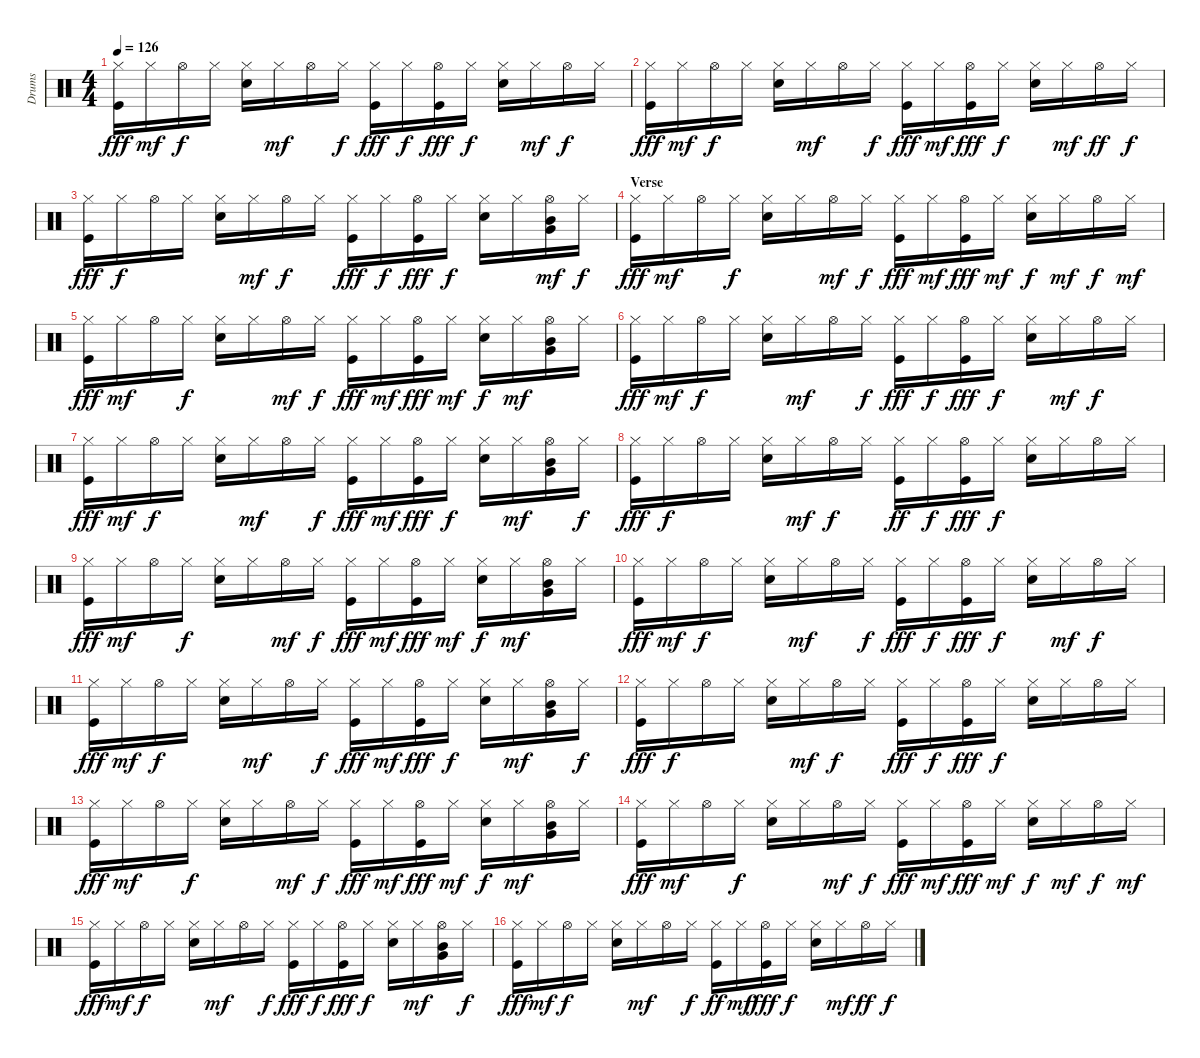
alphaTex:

\track ("Drums" "Drums") {instrument percussion}
\staff {score}
\articulation defaults
\ts (4 4)
\tempo 126
\clef neutral
\ks c
("Kick (hit)" "Hi-Hat (closed)").16{dy fff} "Hi-Hat (closed)".16{dy mf} "Hi-Hat (open)".16{dy f} "Hi-Hat (closed)".16 ("Electric Snare (hit)" "Hi-Hat (closed)").16 "Hi-Hat (closed)".16{dy mf} "Hi-Hat (open)".16 "Hi-Hat (closed)".16{dy f} ("Kick (hit)" "Hi-Hat (closed)").16{dy fff} "Hi-Hat (closed)".16{dy f} ("Kick (hit)" "Hi-Hat (open)").16{dy fff} "Hi-Hat (closed)".16{dy f} ("Electric Snare (hit)" "Hi-Hat (closed)").16 "Hi-Hat (closed)".16{dy mf} "Hi-Hat (open)".16{dy f} "Hi-Hat (closed)".16 |
("Kick (hit)" "Hi-Hat (closed)").16{dy fff} "Hi-Hat (closed)".16{dy mf} "Hi-Hat (open)".16{dy f} "Hi-Hat (closed)".16 ("Electric Snare (hit)" "Hi-Hat (closed)").16 "Hi-Hat (closed)".16{dy mf} "Hi-Hat (open)".16 "Hi-Hat (closed)".16{dy f} ("Kick (hit)" "Hi-Hat (closed)").16{dy fff} "Hi-Hat (closed)".16{dy mf} ("Kick (hit)" "Hi-Hat (open)").16{dy fff} "Hi-Hat (closed)".16{dy f} ("Electric Snare (hit)" "Hi-Hat (closed)").16 "Hi-Hat (closed)".16{dy mf} "Hi-Hat (open)".16{dy ff} "Hi-Hat (closed)".16{dy f} |
("Kick (hit)" "Hi-Hat (closed)").16{dy fff} "Hi-Hat (closed)".16{dy f} "Hi-Hat (open)".16 "Hi-Hat (closed)".16 ("Electric Snare (hit)" "Hi-Hat (closed)").16 "Hi-Hat (closed)".16{dy mf} "Hi-Hat (open)".16{dy f} "Hi-Hat (closed)".16 ("Kick (hit)" "Hi-Hat (closed)").16{dy fff} "Hi-Hat (closed)".16{dy f} ("Kick (hit)" "Hi-Hat (open)").16{dy fff} "Hi-Hat (closed)".16{dy f} ("Electric Snare (hit)" "Hi-Hat (closed)").16 "Hi-Hat (closed)".16 ("Very Low Tom (hit)" "Hi-Hat (open)" "Mid Tom (hit)").16{dy mf} "Hi-Hat (closed)".16{dy f} |
\section ("" "Verse")
("Kick (hit)" "Hi-Hat (closed)").16{dy fff} "Hi-Hat (closed)".16{dy mf} "Hi-Hat (open)".16 "Hi-Hat (closed)".16{dy f} ("Electric Snare (hit)" "Hi-Hat (closed)").16 "Hi-Hat (closed)".16 "Hi-Hat (open)".16{dy mf} "Hi-Hat (closed)".16{dy f} ("Kick (hit)" "Hi-Hat (closed)").16{dy fff} "Hi-Hat (closed)".16{dy mf} ("Kick (hit)" "Hi-Hat (open)").16{dy fff} "Hi-Hat (closed)".16{dy mf} ("Electric Snare (hit)" "Hi-Hat (closed)").16{dy f} "Hi-Hat (closed)".16{dy mf} "Hi-Hat (open)".16{dy f} "Hi-Hat (closed)".16{dy mf} |
("Kick (hit)" "Hi-Hat (closed)").16{dy fff} "Hi-Hat (closed)".16{dy mf} "Hi-Hat (open)".16 "Hi-Hat (closed)".16{dy f} ("Electric Snare (hit)" "Hi-Hat (closed)").16 "Hi-Hat (closed)".16 "Hi-Hat (open)".16{dy mf} "Hi-Hat (closed)".16{dy f} ("Kick (hit)" "Hi-Hat (closed)").16{dy fff} "Hi-Hat (closed)".16{dy mf} ("Kick (hit)" "Hi-Hat (open)").16{dy fff} "Hi-Hat (closed)".16{dy mf} ("Electric Snare (hit)" "Hi-Hat (closed)").16{dy f} "Hi-Hat (closed)".16{dy mf} ("Very Low Tom (hit)" "Hi-Hat (open)" "Mid Tom (hit)").16 "Hi-Hat (closed)".16 |
("Kick (hit)" "Hi-Hat (closed)").16{dy fff} "Hi-Hat (closed)".16{dy mf} "Hi-Hat (open)".16{dy f} "Hi-Hat (closed)".16 ("Electric Snare (hit)" "Hi-Hat (closed)").16 "Hi-Hat (closed)".16{dy mf} "Hi-Hat (open)".16 "Hi-Hat (closed)".16{dy f} ("Kick (hit)" "Hi-Hat (closed)").16{dy fff} "Hi-Hat (closed)".16{dy f} ("Kick (hit)" "Hi-Hat (open)").16{dy fff} "Hi-Hat (closed)".16{dy f} ("Electric Snare (hit)" "Hi-Hat (closed)").16 "Hi-Hat (closed)".16{dy mf} "Hi-Hat (open)".16{dy f} "Hi-Hat (closed)".16 |
("Kick (hit)" "Hi-Hat (closed)").16{dy fff} "Hi-Hat (closed)".16{dy mf} "Hi-Hat (open)".16{dy f} "Hi-Hat (closed)".16 ("Electric Snare (hit)" "Hi-Hat (closed)").16 "Hi-Hat (closed)".16{dy mf} "Hi-Hat (open)".16 "Hi-Hat (closed)".16{dy f} ("Kick (hit)" "Hi-Hat (closed)").16{dy fff} "Hi-Hat (closed)".16{dy mf} ("Kick (hit)" "Hi-Hat (open)").16{dy fff} "Hi-Hat (closed)".16{dy f} ("Electric Snare (hit)" "Hi-Hat (closed)").16 "Hi-Hat (closed)".16{dy mf} ("Very Low Tom (hit)" "Hi-Hat (open)" "Mid Tom (hit)").16 "Hi-Hat (closed)".16{dy f} |
("Kick (hit)" "Hi-Hat (closed)").16{dy fff} "Hi-Hat (closed)".16{dy f} "Hi-Hat (open)".16 "Hi-Hat (closed)".16 ("Electric Snare (hit)" "Hi-Hat (closed)").16 "Hi-Hat (closed)".16{dy mf} "Hi-Hat (open)".16{dy f} "Hi-Hat (closed)".16 ("Kick (hit)" "Hi-Hat (closed)").16{dy ff} "Hi-Hat (closed)".16{dy f} ("Kick (hit)" "Hi-Hat (open)").16{dy fff} "Hi-Hat (closed)".16{dy f} ("Electric Snare (hit)" "Hi-Hat (closed)").16 "Hi-Hat (closed)".16 "Hi-Hat (open)".16 "Hi-Hat (closed)".16 |
("Kick (hit)" "Hi-Hat (closed)").16{dy fff} "Hi-Hat (closed)".16{dy mf} "Hi-Hat (open)".16 "Hi-Hat (closed)".16{dy f} ("Electric Snare (hit)" "Hi-Hat (closed)").16 "Hi-Hat (closed)".16 "Hi-Hat (open)".16{dy mf} "Hi-Hat (closed)".16{dy f} ("Kick (hit)" "Hi-Hat (closed)").16{dy fff} "Hi-Hat (closed)".16{dy mf} ("Kick (hit)" "Hi-Hat (open)").16{dy fff} "Hi-Hat (closed)".16{dy mf} ("Electric Snare (hit)" "Hi-Hat (closed)").16{dy f} "Hi-Hat (closed)".16{dy mf} ("Very Low Tom (hit)" "Hi-Hat (open)" "Mid Tom (hit)").16 "Hi-Hat (closed)".16 |
("Kick (hit)" "Hi-Hat (closed)").16{dy fff} "Hi-Hat (closed)".16{dy mf} "Hi-Hat (open)".16{dy f} "Hi-Hat (closed)".16 ("Electric Snare (hit)" "Hi-Hat (closed)").16 "Hi-Hat (closed)".16{dy mf} "Hi-Hat (open)".16 "Hi-Hat (closed)".16{dy f} ("Kick (hit)" "Hi-Hat (closed)").16{dy fff} "Hi-Hat (closed)".16{dy f} ("Kick (hit)" "Hi-Hat (open)").16{dy fff} "Hi-Hat (closed)".16{dy f} ("Electric Snare (hit)" "Hi-Hat (closed)").16 "Hi-Hat (closed)".16{dy mf} "Hi-Hat (open)".16{dy f} "Hi-Hat (closed)".16 |
("Kick (hit)" "Hi-Hat (closed)").16{dy fff} "Hi-Hat (closed)".16{dy mf} "Hi-Hat (open)".16{dy f} "Hi-Hat (closed)".16 ("Electric Snare (hit)" "Hi-Hat (closed)").16 "Hi-Hat (closed)".16{dy mf} "Hi-Hat (open)".16 "Hi-Hat (closed)".16{dy f} ("Kick (hit)" "Hi-Hat (closed)").16{dy fff} "Hi-Hat (closed)".16{dy mf} ("Kick (hit)" "Hi-Hat (open)").16{dy fff} "Hi-Hat (closed)".16{dy f} ("Electric Snare (hit)" "Hi-Hat (closed)").16 "Hi-Hat (closed)".16{dy mf} ("Very Low Tom (hit)" "Hi-Hat (open)" "Mid Tom (hit)").16 "Hi-Hat (closed)".16{dy f} |
("Kick (hit)" "Hi-Hat (closed)").16{dy fff} "Hi-Hat (closed)".16{dy f} "Hi-Hat (open)".16 "Hi-Hat (closed)".16 ("Electric Snare (hit)" "Hi-Hat (closed)").16 "Hi-Hat (closed)".16{dy mf} "Hi-Hat (open)".16{dy f} "Hi-Hat (closed)".16 ("Kick (hit)" "Hi-Hat (closed)").16{dy fff} "Hi-Hat (closed)".16{dy f} ("Kick (hit)" "Hi-Hat (open)").16{dy fff} "Hi-Hat (closed)".16{dy f} ("Electric Snare (hit)" "Hi-Hat (closed)").16 "Hi-Hat (closed)".16 "Hi-Hat (open)".16 "Hi-Hat (closed)".16 |
("Kick (hit)" "Hi-Hat (closed)").16{dy fff} "Hi-Hat (closed)".16{dy mf} "Hi-Hat (open)".16 "Hi-Hat (closed)".16{dy f} ("Electric Snare (hit)" "Hi-Hat (closed)").16 "Hi-Hat (closed)".16 "Hi-Hat (open)".16{dy mf} "Hi-Hat (closed)".16{dy f} ("Kick (hit)" "Hi-Hat (closed)").16{dy fff} "Hi-Hat (closed)".16{dy mf} ("Kick (hit)" "Hi-Hat (open)").16{dy fff} "Hi-Hat (closed)".16{dy mf} ("Electric Snare (hit)" "Hi-Hat (closed)").16{dy f} "Hi-Hat (closed)".16{dy mf} ("Very Low Tom (hit)" "Hi-Hat (open)" "Mid Tom (hit)").16 "Hi-Hat (closed)".16 |
("Kick (hit)" "Hi-Hat (closed)").16{dy fff} "Hi-Hat (closed)".16{dy mf} "Hi-Hat (open)".16 "Hi-Hat (closed)".16{dy f} ("Electric Snare (hit)" "Hi-Hat (closed)").16 "Hi-Hat (closed)".16 "Hi-Hat (open)".16{dy mf} "Hi-Hat (closed)".16{dy f} ("Kick (hit)" "Hi-Hat (closed)").16{dy fff} "Hi-Hat (closed)".16{dy mf} ("Kick (hit)" "Hi-Hat (open)").16{dy fff} "Hi-Hat (closed)".16{dy mf} ("Electric Snare (hit)" "Hi-Hat (closed)").16{dy f} "Hi-Hat (closed)".16{dy mf} "Hi-Hat (open)".16{dy f} "Hi-Hat (closed)".16{dy mf} |
("Kick (hit)" "Hi-Hat (closed)").16{dy fff} "Hi-Hat (closed)".16{dy mf} "Hi-Hat (open)".16{dy f} "Hi-Hat (closed)".16 ("Electric Snare (hit)" "Hi-Hat (closed)").16 "Hi-Hat (closed)".16{dy mf} "Hi-Hat (open)".16 "Hi-Hat (closed)".16{dy f} ("Kick (hit)" "Hi-Hat (closed)").16{dy fff} "Hi-Hat (closed)".16{dy f} ("Kick (hit)" "Hi-Hat (open)").16{dy fff} "Hi-Hat (closed)".16{dy f} ("Electric Snare (hit)" "Hi-Hat (closed)").16 "Hi-Hat (closed)".16{dy mf} ("Very Low Tom (hit)" "Hi-Hat (open)" "Mid Tom (hit)").16 "Hi-Hat (closed)".16{dy f} |
("Kick (hit)" "Hi-Hat (closed)").16{dy fff} "Hi-Hat (closed)".16{dy mf} "Hi-Hat (open)".16{dy f} "Hi-Hat (closed)".16 ("Electric Snare (hit)" "Hi-Hat (closed)").16 "Hi-Hat (closed)".16{dy mf} "Hi-Hat (open)".16 "Hi-Hat (closed)".16{dy f} ("Kick (hit)" "Hi-Hat (closed)").16{dy ff} "Hi-Hat (closed)".16{dy mf} ("Kick (hit)" "Hi-Hat (open)").16{dy fff} "Hi-Hat (closed)".16{dy f} ("Electric Snare (hit)" "Hi-Hat (closed)").16 "Hi-Hat (closed)".16{dy mf} "Hi-Hat (open)".16{dy ff} "Hi-Hat (closed)".16{dy f}
